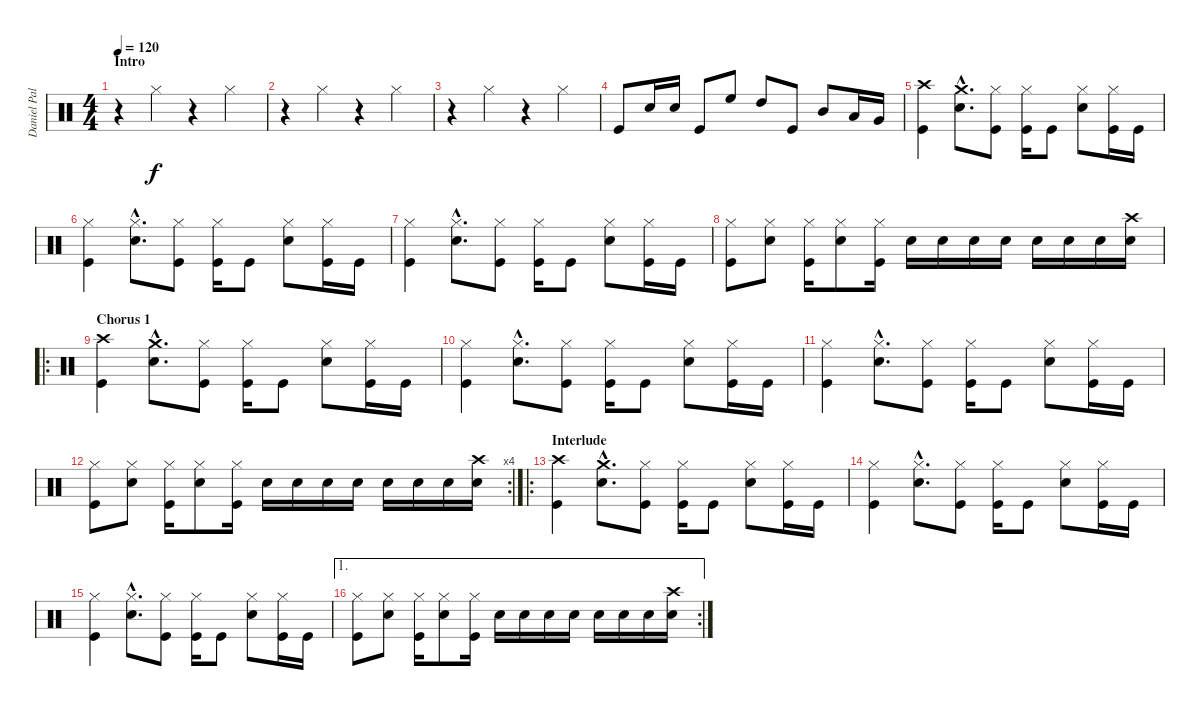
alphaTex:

\track ("Daniel Pal" "Daniel Pal") {instrument percussion}
\staff {score}
\articulation defaults
\ts (4 4)
\section ("" "Intro")
\tempo 120
\clef neutral
\ks c
r.4{dy f} "Hi-Hat (closed)".4 r.4 "Hi-Hat (closed)".4 |
r.4 "Hi-Hat (closed)".4 r.4 "Hi-Hat (closed)".4 |
r.4 "Hi-Hat (closed)".4 r.4 "Hi-Hat (closed)".4 |
"Kick (hit)".8 "Electric Snare (hit)".16 "Electric Snare (hit)".16 "Kick (hit)".8 "High Floor Tom (hit)".8 "High Tom (hit)".8 "Kick (hit)".8 "Mid Tom (hit)".8 "Low Tom (hit)".16 "Very Low Tom (hit)".16 |
("Crash high (hit)" "Kick (hit)").4 ("Crash medium (hit)"{hac} "Electric Snare (hit)"{hac}).8{d} ("Hi-Hat (closed)" "Kick (hit)").8 ("Hi-Hat (closed)" "Kick (hit)").16 "Kick (hit)".8 ("Hi-Hat (closed)" "Electric Snare (hit)").8 ("Hi-Hat (closed)" "Kick (hit)").16 "Kick (hit)".16 |
("Hi-Hat (closed)" "Kick (hit)").4 ("Hi-Hat (closed)"{hac} "Electric Snare (hit)"{hac}).8{d} ("Hi-Hat (closed)" "Kick (hit)").8 ("Hi-Hat (closed)" "Kick (hit)").16 "Kick (hit)".8 ("Hi-Hat (closed)" "Electric Snare (hit)").8 ("Hi-Hat (closed)" "Kick (hit)").16 "Kick (hit)".16 |
("Hi-Hat (closed)" "Kick (hit)").4 ("Hi-Hat (closed)"{hac} "Electric Snare (hit)"{hac}).8{d} ("Hi-Hat (closed)" "Kick (hit)").8 ("Hi-Hat (closed)" "Kick (hit)").16 "Kick (hit)".8 ("Hi-Hat (closed)" "Electric Snare (hit)").8 ("Hi-Hat (closed)" "Kick (hit)").16 "Kick (hit)".16 |
("Hi-Hat (closed)" "Kick (hit)").8 ("Hi-Hat (closed)" "Electric Snare (hit)").8 ("Hi-Hat (closed)" "Kick (hit)").16 ("Hi-Hat (closed)" "Electric Snare (hit)").8 ("Hi-Hat (closed)" "Kick (hit)").16 "Electric Snare (hit)".16 "Electric Snare (hit)".16 "Electric Snare (hit)".16 "Electric Snare (hit)".16 "Electric Snare (hit)".16 "Electric Snare (hit)".16 "Electric Snare (hit)".16 ("Crash high (hit)" "Electric Snare (hit)").16 |
\ro
\section ("" "Chorus 1")
("Crash high (hit)" "Kick (hit)").4 ("Crash medium (hit)"{hac} "Electric Snare (hit)"{hac}).8{d} ("Hi-Hat (closed)" "Kick (hit)").8 ("Hi-Hat (closed)" "Kick (hit)").16 "Kick (hit)".8 ("Hi-Hat (closed)" "Electric Snare (hit)").8 ("Hi-Hat (closed)" "Kick (hit)").16 "Kick (hit)".16 |
("Hi-Hat (closed)" "Kick (hit)").4 ("Hi-Hat (closed)"{hac} "Electric Snare (hit)"{hac}).8{d} ("Hi-Hat (closed)" "Kick (hit)").8 ("Hi-Hat (closed)" "Kick (hit)").16 "Kick (hit)".8 ("Hi-Hat (closed)" "Electric Snare (hit)").8 ("Hi-Hat (closed)" "Kick (hit)").16 "Kick (hit)".16 |
("Hi-Hat (closed)" "Kick (hit)").4 ("Hi-Hat (closed)"{hac} "Electric Snare (hit)"{hac}).8{d} ("Hi-Hat (closed)" "Kick (hit)").8 ("Hi-Hat (closed)" "Kick (hit)").16 "Kick (hit)".8 ("Hi-Hat (closed)" "Electric Snare (hit)").8 ("Hi-Hat (closed)" "Kick (hit)").16 "Kick (hit)".16 |
\rc 4
("Hi-Hat (closed)" "Kick (hit)").8 ("Hi-Hat (closed)" "Electric Snare (hit)").8 ("Hi-Hat (closed)" "Kick (hit)").16 ("Hi-Hat (closed)" "Electric Snare (hit)").8 ("Hi-Hat (closed)" "Kick (hit)").16 "Electric Snare (hit)".16 "Electric Snare (hit)".16 "Electric Snare (hit)".16 "Electric Snare (hit)".16 "Electric Snare (hit)".16 "Electric Snare (hit)".16 "Electric Snare (hit)".16 ("Crash high (hit)" "Electric Snare (hit)").16 |
\ro
\section ("" "Interlude")
("Crash high (hit)" "Kick (hit)").4 ("Crash medium (hit)"{hac} "Electric Snare (hit)"{hac}).8{d} ("Hi-Hat (closed)" "Kick (hit)").8 ("Hi-Hat (closed)" "Kick (hit)").16 "Kick (hit)".8 ("Hi-Hat (closed)" "Electric Snare (hit)").8 ("Hi-Hat (closed)" "Kick (hit)").16 "Kick (hit)".16 |
("Hi-Hat (closed)" "Kick (hit)").4 ("Hi-Hat (closed)"{hac} "Electric Snare (hit)"{hac}).8{d} ("Hi-Hat (closed)" "Kick (hit)").8 ("Hi-Hat (closed)" "Kick (hit)").16 "Kick (hit)".8 ("Hi-Hat (closed)" "Electric Snare (hit)").8 ("Hi-Hat (closed)" "Kick (hit)").16 "Kick (hit)".16 |
("Hi-Hat (closed)" "Kick (hit)").4 ("Hi-Hat (closed)"{hac} "Electric Snare (hit)"{hac}).8{d} ("Hi-Hat (closed)" "Kick (hit)").8 ("Hi-Hat (closed)" "Kick (hit)").16 "Kick (hit)".8 ("Hi-Hat (closed)" "Electric Snare (hit)").8 ("Hi-Hat (closed)" "Kick (hit)").16 "Kick (hit)".16 |
\ae 1
\rc 2
("Hi-Hat (closed)" "Kick (hit)").8 ("Hi-Hat (closed)" "Electric Snare (hit)").8 ("Hi-Hat (closed)" "Kick (hit)").16 ("Hi-Hat (closed)" "Electric Snare (hit)").8 ("Hi-Hat (closed)" "Kick (hit)").16 "Electric Snare (hit)".16 "Electric Snare (hit)".16 "Electric Snare (hit)".16 "Electric Snare (hit)".16 "Electric Snare (hit)".16 "Electric Snare (hit)".16 "Electric Snare (hit)".16 ("Crash high (hit)" "Electric Snare (hit)").16
